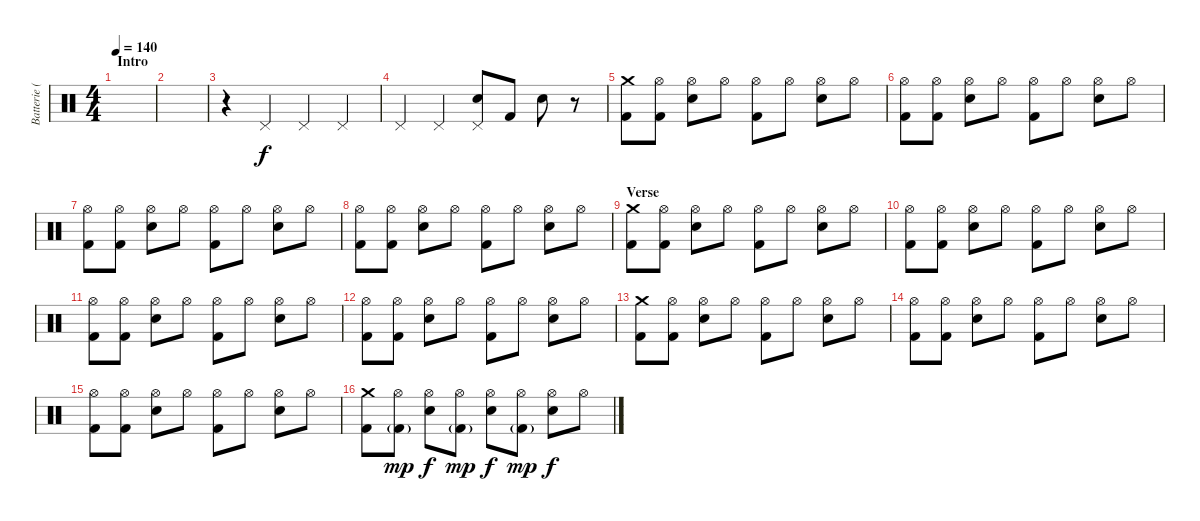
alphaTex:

\track ("Batterie (Dave)" "Batterie (") {instrument percussion}
\staff {score}
\articulation defaults
\ts (4 4)
\section ("" "Intro")
\tempo 140
\clef neutral
\ks c
|
|
r.4 "Pedal Hi-Hat (hit)".4 "Pedal Hi-Hat (hit)".4 "Pedal Hi-Hat (hit)".4 |
"Pedal Hi-Hat (hit)".4 "Pedal Hi-Hat (hit)".4 ("Snare (hit) 2" "Pedal Hi-Hat (hit)").8 "Kick (hit) 2".8 "Snare (hit) 2".8 r.8 |
("Crash medium (hit)" "Kick (hit) 2").8 ("Hi-Hat (open)" "Kick (hit) 2").8 ("Hi-Hat (open)" "Snare (hit) 2").8 "Hi-Hat (open)".8 ("Hi-Hat (open)" "Kick (hit) 2").8 "Hi-Hat (open)".8 ("Hi-Hat (open)" "Snare (hit) 2").8 "Hi-Hat (open)".8 |
("Hi-Hat (open)" "Kick (hit) 2").8 ("Hi-Hat (open)" "Kick (hit) 2").8 ("Hi-Hat (open)" "Snare (hit) 2").8 "Hi-Hat (open)".8 ("Hi-Hat (open)" "Kick (hit) 2").8 "Hi-Hat (open)".8 ("Hi-Hat (open)" "Snare (hit) 2").8 "Hi-Hat (open)".8 |
("Hi-Hat (open)" "Kick (hit) 2").8 ("Hi-Hat (open)" "Kick (hit) 2").8 ("Hi-Hat (open)" "Snare (hit) 2").8 "Hi-Hat (open)".8 ("Hi-Hat (open)" "Kick (hit) 2").8 "Hi-Hat (open)".8 ("Hi-Hat (open)" "Snare (hit) 2").8 "Hi-Hat (open)".8 |
("Hi-Hat (open)" "Kick (hit) 2").8 ("Hi-Hat (open)" "Kick (hit) 2").8 ("Hi-Hat (open)" "Snare (hit) 2").8 "Hi-Hat (open)".8 ("Hi-Hat (open)" "Kick (hit) 2").8 "Hi-Hat (open)".8 ("Hi-Hat (open)" "Snare (hit) 2").8 "Hi-Hat (open)".8 |
\section ("" "Verse")
("Crash medium (hit)" "Kick (hit) 2").8 ("Hi-Hat (open)" "Kick (hit) 2").8 ("Hi-Hat (open)" "Snare (hit) 2").8 "Hi-Hat (open)".8 ("Hi-Hat (open)" "Kick (hit) 2").8 "Hi-Hat (open)".8 ("Hi-Hat (open)" "Snare (hit) 2").8 "Hi-Hat (open)".8 |
("Hi-Hat (open)" "Kick (hit) 2").8 ("Hi-Hat (open)" "Kick (hit) 2").8 ("Hi-Hat (open)" "Snare (hit) 2").8 "Hi-Hat (open)".8 ("Hi-Hat (open)" "Kick (hit) 2").8 "Hi-Hat (open)".8 ("Hi-Hat (open)" "Snare (hit) 2").8 "Hi-Hat (open)".8 |
("Hi-Hat (open)" "Kick (hit) 2").8 ("Hi-Hat (open)" "Kick (hit) 2").8 ("Hi-Hat (open)" "Snare (hit) 2").8 "Hi-Hat (open)".8 ("Hi-Hat (open)" "Kick (hit) 2").8 "Hi-Hat (open)".8 ("Hi-Hat (open)" "Snare (hit) 2").8 "Hi-Hat (open)".8 |
("Hi-Hat (open)" "Kick (hit) 2").8 ("Hi-Hat (open)" "Kick (hit) 2").8 ("Hi-Hat (open)" "Snare (hit) 2").8 "Hi-Hat (open)".8 ("Hi-Hat (open)" "Kick (hit) 2").8 "Hi-Hat (open)".8 ("Hi-Hat (open)" "Snare (hit) 2").8 "Hi-Hat (open)".8 |
("Crash medium (hit)" "Kick (hit) 2").8 ("Hi-Hat (open)" "Kick (hit) 2").8 ("Hi-Hat (open)" "Snare (hit) 2").8 "Hi-Hat (open)".8 ("Hi-Hat (open)" "Kick (hit) 2").8 "Hi-Hat (open)".8 ("Hi-Hat (open)" "Snare (hit) 2").8 "Hi-Hat (open)".8 |
("Hi-Hat (open)" "Kick (hit) 2").8 ("Hi-Hat (open)" "Kick (hit) 2").8 ("Hi-Hat (open)" "Snare (hit) 2").8 "Hi-Hat (open)".8 ("Hi-Hat (open)" "Kick (hit) 2").8 "Hi-Hat (open)".8 ("Hi-Hat (open)" "Snare (hit) 2").8 "Hi-Hat (open)".8 |
("Hi-Hat (open)" "Kick (hit) 2").8 ("Hi-Hat (open)" "Kick (hit) 2").8 ("Hi-Hat (open)" "Snare (hit) 2").8 "Hi-Hat (open)".8 ("Hi-Hat (open)" "Kick (hit) 2").8 "Hi-Hat (open)".8 ("Hi-Hat (open)" "Snare (hit) 2").8 "Hi-Hat (open)".8 |
("Crash medium (hit)" "Kick (hit) 2").8 ("Hi-Hat (open)" "Kick (hit) 2"{g}).8{dy mp} ("Hi-Hat (open)" "Snare (hit) 2").8{dy f} ("Hi-Hat (open)" "Kick (hit) 2"{g}).8{dy mp} ("Hi-Hat (open)" "Snare (hit) 2").8{dy f} ("Hi-Hat (open)" "Kick (hit) 2"{g}).8{dy mp} ("Hi-Hat (open)" "Snare (hit) 2").8{dy f} "Hi-Hat (open)".8
